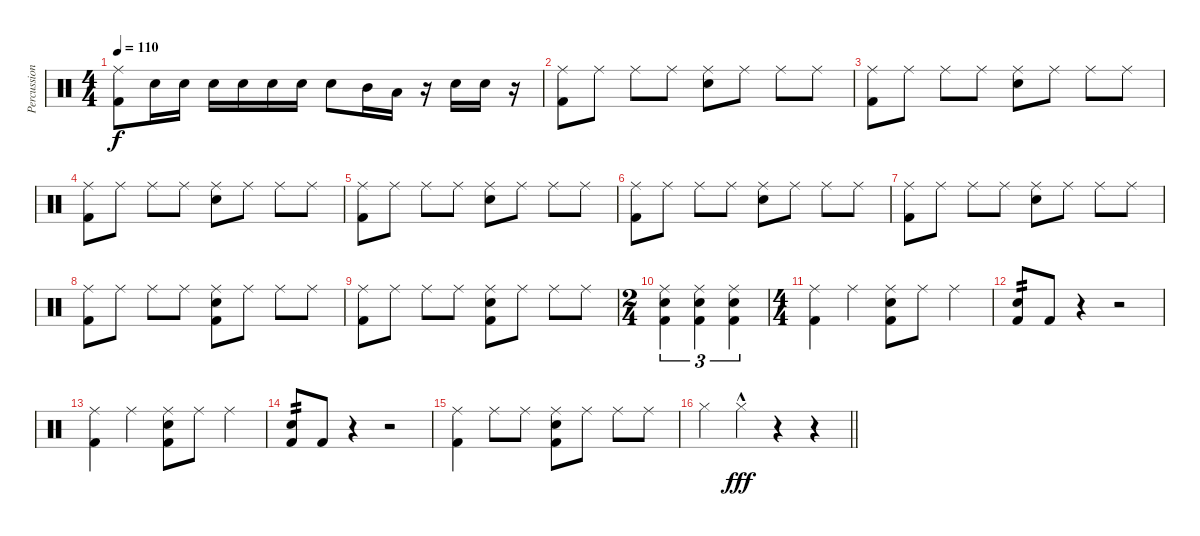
\track ("Percussion" "Percussion") {instrument percussion}
\staff {score}
\articulation defaults
\ts (4 4)
\tempo 110
\clef neutral
\ks c
("Ride (middle)" "Kick (hit) 2").8{dy f} "Snare (hit) 2".16 "Snare (hit) 2".16 "Snare (hit) 2".16 "Snare (hit) 2".16 "Snare (hit) 2".16 "Snare (hit) 2".16 "Snare (hit) 2".8 "Mid Tom (hit)".16 "Low Floor Tom (hit)".16 r.16 "Snare (hit) 2".16 "Snare (hit) 2".16 r.16 |
("Ride (middle)" "Kick (hit) 2").8 "Ride (middle)".8 "Ride (middle)".8 "Ride (middle)".8 ("Ride (middle)" "Snare (hit) 2").8 "Ride (middle)".8 "Ride (middle)".8 "Ride (middle)".8 |
("Ride (middle)" "Kick (hit) 2").8 "Ride (middle)".8 "Ride (middle)".8 "Ride (middle)".8 ("Ride (middle)" "Snare (hit) 2").8 "Ride (middle)".8 "Ride (middle)".8 "Ride (middle)".8 |
("Ride (middle)" "Kick (hit) 2").8 "Ride (middle)".8 "Ride (middle)".8 "Ride (middle)".8 ("Ride (middle)" "Snare (hit) 2").8 "Ride (middle)".8 "Ride (middle)".8 "Ride (middle)".8 |
("Ride (middle)" "Kick (hit) 2").8 "Ride (middle)".8 "Ride (middle)".8 "Ride (middle)".8 ("Ride (middle)" "Snare (hit) 2").8 "Ride (middle)".8 "Ride (middle)".8 "Ride (middle)".8 |
("Ride (middle)" "Kick (hit) 2").8 "Ride (middle)".8 "Ride (middle)".8 "Ride (middle)".8 ("Ride (middle)" "Snare (hit) 2").8 "Ride (middle)".8 "Ride (middle)".8 "Ride (middle)".8 |
("Ride (middle)" "Kick (hit) 2").8 "Ride (middle)".8 "Ride (middle)".8 "Ride (middle)".8 ("Ride (middle)" "Snare (hit) 2").8 "Ride (middle)".8 "Ride (middle)".8 "Ride (middle)".8 |
("Ride (middle)" "Kick (hit) 2").8 "Ride (middle)".8 "Ride (middle)".8 "Ride (middle)".8 ("Ride (middle)" "Snare (hit) 2" "Kick (hit) 2").8 "Ride (middle)".8 "Ride (middle)".8 "Ride (middle)".8 |
("Ride (middle)" "Kick (hit) 2").8 "Ride (middle)".8 "Ride (middle)".8 "Ride (middle)".8 ("Ride (middle)" "Snare (hit) 2" "Kick (hit) 2").8 "Ride (middle)".8 "Ride (middle)".8 "Ride (middle)".8 |
\ts (2 4)
("Ride (middle)" "Kick (hit) 2" "Snare (hit) 2").4{tu (3 2)} ("Ride (middle)" "Kick (hit) 2" "Snare (hit) 2").4{tu (3 2)} ("Ride (middle)" "Kick (hit) 2" "Snare (hit) 2").4{tu (3 2)} |
\ts (4 4)
("Ride (middle)" "Kick (hit) 2").4 "Ride (middle)".4 ("Ride (middle)" "Snare (hit) 2" "Kick (hit) 2").8 "Ride (middle)".8 "Ride (middle)".4 |
("Snare (hit) 2" "Kick (hit) 2").8{tp 2} "Kick (hit) 2".8 r.4 r.2 |
("Ride (middle)" "Kick (hit) 2").4 "Ride (middle)".4 ("Ride (middle)" "Snare (hit) 2" "Kick (hit) 2").8 "Ride (middle)".8 "Ride (middle)".4 |
("Snare (hit) 2" "Kick (hit) 2").8{tp 2} "Kick (hit) 2".8 r.4 r.2 |
("Ride (middle)" "Kick (hit) 2").4 "Ride (middle)".8 "Ride (middle)".8 ("Ride (middle)" "Snare (hit) 2" "Kick (hit) 2").8 "Ride (middle)".8 "Ride (middle)".8 "Ride (middle)".8 |
\barLineRight lightlight "Hi-Hat (closed)".4 "Hi-Hat (closed)"{hac}.4{dy fff}
r.4 r.4
